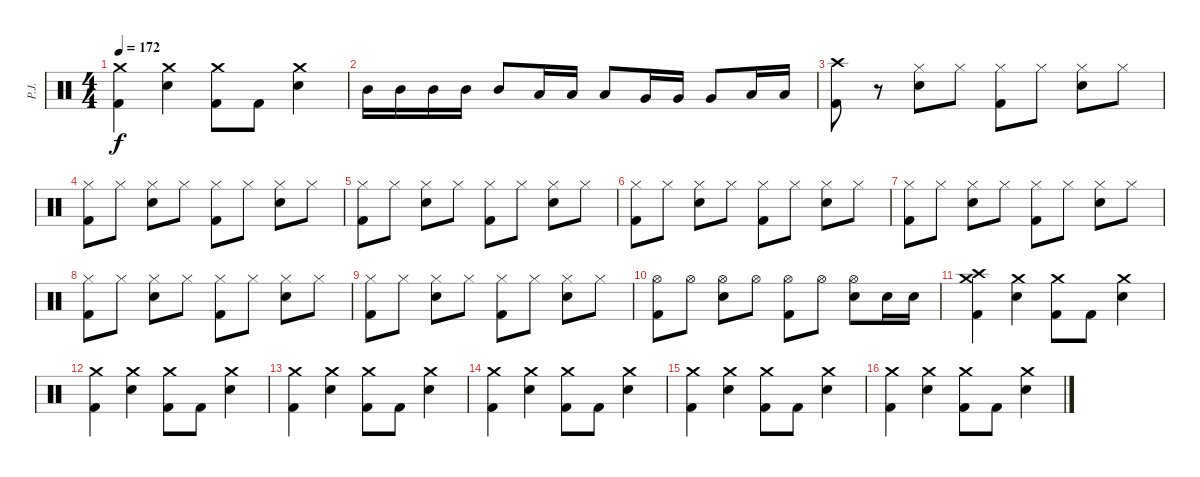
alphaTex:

\track ("P.J." "P.J.") {instrument percussion}
\staff {score}
\articulation defaults
\ts (4 4)
\tempo 172
\clef neutral
\ks c
("Crash medium (hit)" "Kick (hit) 2").4{dy f} ("Crash medium (hit)" "Electric Snare (hit)").4 ("Crash medium (hit)" "Kick (hit) 2").8 "Kick (hit) 2".8 ("Crash medium (hit)" "Electric Snare (hit)").4 |
"Mid Tom (hit)".16 "Mid Tom (hit)".16 "Mid Tom (hit)".16 "Mid Tom (hit)".16 "Mid Tom (hit)".8 "Low Tom (hit)".16 "Low Tom (hit)".16 "Low Tom (hit)".8 "Very Low Tom (hit)".16 "Very Low Tom (hit)".16 "Very Low Tom (hit)".8 "Low Floor Tom (hit)".16 "Low Floor Tom (hit)".16 |
("Crash high (hit)" "Kick (hit) 2").8 r.8 ("Hi-Hat (closed)" "Electric Snare (hit)").8 "Hi-Hat (closed)".8 ("Hi-Hat (closed)" "Kick (hit) 2").8 "Hi-Hat (closed)".8 ("Hi-Hat (closed)" "Electric Snare (hit)").8 "Hi-Hat (closed)".8 |
("Hi-Hat (closed)" "Kick (hit) 2").8 "Hi-Hat (closed)".8 ("Hi-Hat (closed)" "Electric Snare (hit)").8 "Hi-Hat (closed)".8 ("Hi-Hat (closed)" "Kick (hit) 2").8 "Hi-Hat (closed)".8 ("Hi-Hat (closed)" "Electric Snare (hit)").8 "Hi-Hat (closed)".8 |
("Hi-Hat (closed)" "Kick (hit) 2").8 "Hi-Hat (closed)".8 ("Hi-Hat (closed)" "Electric Snare (hit)").8 "Hi-Hat (closed)".8 ("Hi-Hat (closed)" "Kick (hit) 2").8 "Hi-Hat (closed)".8 ("Hi-Hat (closed)" "Electric Snare (hit)").8 "Hi-Hat (closed)".8 |
("Hi-Hat (closed)" "Kick (hit) 2").8 "Hi-Hat (closed)".8 ("Hi-Hat (closed)" "Electric Snare (hit)").8 "Hi-Hat (closed)".8 ("Hi-Hat (closed)" "Kick (hit) 2").8 "Hi-Hat (closed)".8 ("Hi-Hat (closed)" "Electric Snare (hit)").8 "Hi-Hat (closed)".8 |
("Hi-Hat (closed)" "Kick (hit) 2").8 "Hi-Hat (closed)".8 ("Hi-Hat (closed)" "Electric Snare (hit)").8 "Hi-Hat (closed)".8 ("Hi-Hat (closed)" "Kick (hit) 2").8 "Hi-Hat (closed)".8 ("Hi-Hat (closed)" "Electric Snare (hit)").8 "Hi-Hat (closed)".8 |
("Hi-Hat (closed)" "Kick (hit) 2").8 "Hi-Hat (closed)".8 ("Hi-Hat (closed)" "Electric Snare (hit)").8 "Hi-Hat (closed)".8 ("Hi-Hat (closed)" "Kick (hit) 2").8 "Hi-Hat (closed)".8 ("Hi-Hat (closed)" "Electric Snare (hit)").8 "Hi-Hat (closed)".8 |
("Hi-Hat (closed)" "Kick (hit) 2").8 "Hi-Hat (closed)".8 ("Hi-Hat (closed)" "Electric Snare (hit)").8 "Hi-Hat (closed)".8 ("Hi-Hat (closed)" "Kick (hit) 2").8 "Hi-Hat (closed)".8 ("Hi-Hat (closed)" "Electric Snare (hit)").8 "Hi-Hat (closed)".8 |
("Hi-Hat (open)" "Kick (hit) 2").8 "Hi-Hat (open)".8 ("Hi-Hat (open)" "Electric Snare (hit)").8 "Hi-Hat (open)".8 ("Hi-Hat (open)" "Kick (hit) 2").8 "Hi-Hat (open)".8 ("Hi-Hat (open)" "Electric Snare (hit)").8 "Electric Snare (hit)".16 "Electric Snare (hit)".16 |
("Crash high (hit)" "Crash medium (hit)" "Kick (hit) 2").4 ("Crash medium (hit)" "Electric Snare (hit)").4 ("Crash medium (hit)" "Kick (hit) 2").8 "Kick (hit) 2".8 ("Crash medium (hit)" "Electric Snare (hit)").4 |
("Crash medium (hit)" "Kick (hit) 2").4 ("Crash medium (hit)" "Electric Snare (hit)").4 ("Crash medium (hit)" "Kick (hit) 2").8 "Kick (hit) 2".8 ("Crash medium (hit)" "Electric Snare (hit)").4 |
("Crash medium (hit)" "Kick (hit) 2").4 ("Crash medium (hit)" "Electric Snare (hit)").4 ("Crash medium (hit)" "Kick (hit) 2").8 "Kick (hit) 2".8 ("Crash medium (hit)" "Electric Snare (hit)").4 |
("Crash medium (hit)" "Kick (hit) 2").4 ("Crash medium (hit)" "Electric Snare (hit)").4 ("Crash medium (hit)" "Kick (hit) 2").8 "Kick (hit) 2".8 ("Crash medium (hit)" "Electric Snare (hit)").4 |
("Crash medium (hit)" "Kick (hit) 2").4 ("Crash medium (hit)" "Electric Snare (hit)").4 ("Crash medium (hit)" "Kick (hit) 2").8 "Kick (hit) 2".8 ("Crash medium (hit)" "Electric Snare (hit)").4 |
("Crash medium (hit)" "Kick (hit) 2").4 ("Crash medium (hit)" "Electric Snare (hit)").4 ("Crash medium (hit)" "Kick (hit) 2").8 "Kick (hit) 2".8 ("Crash medium (hit)" "Electric Snare (hit)").4
